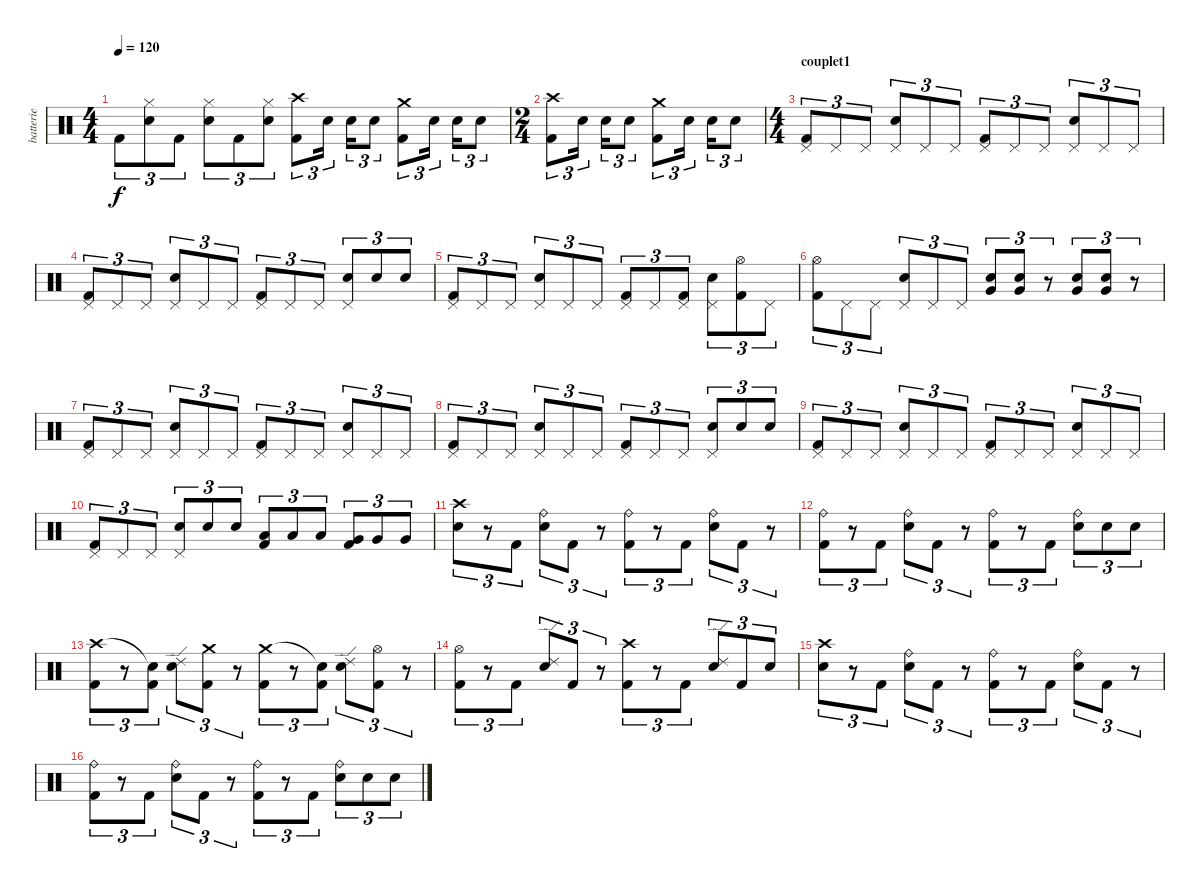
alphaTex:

\track ("batterie" "batterie") {instrument percussion}
\staff {score}
\articulation defaults
\ts (4 4)
\tempo 120
\clef neutral
\ks c "Kick (hit) 2".8{tu (3 2) dy f}
("Snare (hit) 2" "Hi-Hat (closed)").8{tu (3 2)} "Kick (hit) 2".8{tu (3 2)} ("Snare (hit) 2" "Hi-Hat (closed)").8{tu (3 2)} "Kick (hit) 2".8{tu (3 2)} ("Snare (hit) 2" "Hi-Hat (closed)").8{tu (3 2)} ("Crash high (hit)" "Kick (hit) 2").8{tu (3 2)} "Snare (hit) 2".16{tu (3 2)} "Snare (hit) 2".16{tu (3 2)} "Snare (hit) 2".8{tu (3 2)} ("Crash medium (hit)" "Kick (hit) 2").8{tu (3 2)} "Snare (hit) 2".16{tu (3 2)} "Snare (hit) 2".16{tu (3 2)} "Snare (hit) 2".8{tu (3 2)} |
\ts (2 4)
("Crash high (hit)" "Kick (hit) 2").8{tu (3 2)} "Snare (hit) 2".16{tu (3 2)} "Snare (hit) 2".16{tu (3 2)} "Snare (hit) 2".8{tu (3 2)} ("Crash medium (hit)" "Kick (hit) 2").8{tu (3 2)} "Snare (hit) 2".16{tu (3 2)} "Snare (hit) 2".16{tu (3 2)} "Snare (hit) 2".8{tu (3 2)} |
\ts (4 4)
\section ("" "couplet1")
("Kick (hit) 2" "Pedal Hi-Hat (hit)").8{tu (3 2)} "Pedal Hi-Hat (hit)".8{tu (3 2)} "Pedal Hi-Hat (hit)".8{tu (3 2)} ("Snare (hit) 2" "Pedal Hi-Hat (hit)").8{tu (3 2)} "Pedal Hi-Hat (hit)".8{tu (3 2)} "Pedal Hi-Hat (hit)".8{tu (3 2)} ("Kick (hit) 2" "Pedal Hi-Hat (hit)").8{tu (3 2)} "Pedal Hi-Hat (hit)".8{tu (3 2)} "Pedal Hi-Hat (hit)".8{tu (3 2)} ("Snare (hit) 2" "Pedal Hi-Hat (hit)").8{tu (3 2)} "Pedal Hi-Hat (hit)".8{tu (3 2)} "Pedal Hi-Hat (hit)".8{tu (3 2)} |
("Kick (hit) 2" "Pedal Hi-Hat (hit)").8{tu (3 2)} "Pedal Hi-Hat (hit)".8{tu (3 2)} "Pedal Hi-Hat (hit)".8{tu (3 2)} ("Snare (hit) 2" "Pedal Hi-Hat (hit)").8{tu (3 2)} "Pedal Hi-Hat (hit)".8{tu (3 2)} "Pedal Hi-Hat (hit)".8{tu (3 2)} ("Kick (hit) 2" "Pedal Hi-Hat (hit)").8{tu (3 2)} "Pedal Hi-Hat (hit)".8{tu (3 2)} "Pedal Hi-Hat (hit)".8{tu (3 2)} ("Snare (hit) 2" "Pedal Hi-Hat (hit)").8{tu (3 2)} "Snare (hit) 2".8{tu (3 2)} "Snare (hit) 2".8{tu (3 2)} |
("Kick (hit) 2" "Pedal Hi-Hat (hit)").8{tu (3 2)} "Pedal Hi-Hat (hit)".8{tu (3 2)} "Pedal Hi-Hat (hit)".8{tu (3 2)} ("Snare (hit) 2" "Pedal Hi-Hat (hit)").8{tu (3 2)} "Pedal Hi-Hat (hit)".8{tu (3 2)} "Pedal Hi-Hat (hit)".8{tu (3 2)} ("Kick (hit) 2" "Pedal Hi-Hat (hit)").8{tu (3 2)} "Pedal Hi-Hat (hit)".8{tu (3 2)} ("Kick (hit) 2" "Pedal Hi-Hat (hit)").8{tu (3 2)} ("Snare (hit) 2" "Pedal Hi-Hat (hit)").8{tu (3 2)} ("Kick (hit) 2" "Hi-Hat (open)").8{tu (3 2)} "Pedal Hi-Hat (hit)".8{tu (3 2)} |
("Kick (hit) 2" "Hi-Hat (open)").8{tu (3 2)} "Pedal Hi-Hat (hit)".8{tu (3 2)} "Pedal Hi-Hat (hit)".8{tu (3 2)} ("Snare (hit) 2" "Pedal Hi-Hat (hit)").8{tu (3 2)} "Pedal Hi-Hat (hit)".8{tu (3 2)} "Pedal Hi-Hat (hit)".8{tu (3 2)} ("Very Low Tom (hit)" "Snare (hit) 2").8{tu (3 2)} ("Very Low Tom (hit)" "Snare (hit) 2").8{tu (3 2)} r.8{tu (3 2)} ("Very Low Tom (hit)" "Snare (hit) 2").8{tu (3 2)} ("Very Low Tom (hit)" "Snare (hit) 2").8{tu (3 2)} r.8{tu (3 2)} |
("Kick (hit) 2" "Pedal Hi-Hat (hit)").8{tu (3 2)} "Pedal Hi-Hat (hit)".8{tu (3 2)} "Pedal Hi-Hat (hit)".8{tu (3 2)} ("Snare (hit) 2" "Pedal Hi-Hat (hit)").8{tu (3 2)} "Pedal Hi-Hat (hit)".8{tu (3 2)} "Pedal Hi-Hat (hit)".8{tu (3 2)} ("Kick (hit) 2" "Pedal Hi-Hat (hit)").8{tu (3 2)} "Pedal Hi-Hat (hit)".8{tu (3 2)} "Pedal Hi-Hat (hit)".8{tu (3 2)} ("Snare (hit) 2" "Pedal Hi-Hat (hit)").8{tu (3 2)} "Pedal Hi-Hat (hit)".8{tu (3 2)} "Pedal Hi-Hat (hit)".8{tu (3 2)} |
("Kick (hit) 2" "Pedal Hi-Hat (hit)").8{tu (3 2)} "Pedal Hi-Hat (hit)".8{tu (3 2)} "Pedal Hi-Hat (hit)".8{tu (3 2)} ("Snare (hit) 2" "Pedal Hi-Hat (hit)").8{tu (3 2)} "Pedal Hi-Hat (hit)".8{tu (3 2)} "Pedal Hi-Hat (hit)".8{tu (3 2)} ("Kick (hit) 2" "Pedal Hi-Hat (hit)").8{tu (3 2)} "Pedal Hi-Hat (hit)".8{tu (3 2)} "Pedal Hi-Hat (hit)".8{tu (3 2)} ("Snare (hit) 2" "Pedal Hi-Hat (hit)").8{tu (3 2)} "Snare (hit) 2".8{tu (3 2)} "Snare (hit) 2".8{tu (3 2)} |
("Kick (hit) 2" "Pedal Hi-Hat (hit)").8{tu (3 2)} "Pedal Hi-Hat (hit)".8{tu (3 2)} "Pedal Hi-Hat (hit)".8{tu (3 2)} ("Snare (hit) 2" "Pedal Hi-Hat (hit)").8{tu (3 2)} "Pedal Hi-Hat (hit)".8{tu (3 2)} "Pedal Hi-Hat (hit)".8{tu (3 2)} ("Kick (hit) 2" "Pedal Hi-Hat (hit)").8{tu (3 2)} "Pedal Hi-Hat (hit)".8{tu (3 2)} "Pedal Hi-Hat (hit)".8{tu (3 2)} ("Snare (hit) 2" "Pedal Hi-Hat (hit)").8{tu (3 2)} "Pedal Hi-Hat (hit)".8{tu (3 2)} "Pedal Hi-Hat (hit)".8{tu (3 2)} |
("Kick (hit) 2" "Pedal Hi-Hat (hit)").8{tu (3 2)} "Pedal Hi-Hat (hit)".8{tu (3 2)} "Pedal Hi-Hat (hit)".8{tu (3 2)} ("Snare (hit) 2" "Pedal Hi-Hat (hit)").8{tu (3 2)} "Snare (hit) 2".8{tu (3 2)} "Snare (hit) 2".8{tu (3 2)} ("Low Tom (hit)" "Kick (hit) 2").8{tu (3 2)} "Low Tom (hit)".8{tu (3 2)} "Low Tom (hit)".8{tu (3 2)} ("Very Low Tom (hit)" "Kick (hit) 2").8{tu (3 2)} "Very Low Tom (hit)".8{tu (3 2)} "Very Low Tom (hit)".8{tu (3 2)} |
("Crash high (hit)" "Snare (hit) 2").8{tu (3 2)} r.8{tu (3 2)} "Kick (hit) 2".8{tu (3 2)} ("Snare (hit) 2" "Ride (bell)").8{tu (3 2)} "Kick (hit) 2".8{tu (3 2)} r.8{tu (3 2)} ("Kick (hit) 2" "Ride (bell)").8{tu (3 2)} r.8{tu (3 2)} "Kick (hit) 2".8{tu (3 2)} ("Snare (hit) 2" "Ride (bell)").8{tu (3 2)} "Kick (hit) 2".8{tu (3 2)} r.8{tu (3 2)} |
("Kick (hit) 2" "Ride (bell)").8{tu (3 2)} r.8{tu (3 2)} "Kick (hit) 2".8{tu (3 2)} ("Snare (hit) 2" "Ride (bell)").8{tu (3 2)} "Kick (hit) 2".8{tu (3 2)} r.8{tu (3 2)} ("Kick (hit) 2" "Ride (bell)").8{tu (3 2)} r.8{tu (3 2)} "Kick (hit) 2".8{tu (3 2)} ("Snare (hit) 2" "Ride (bell)").8{tu (3 2)} "Snare (hit) 2".8{tu (3 2)} "Snare (hit) 2".8{tu (3 2)} |
("Crash high (hit)" "Kick (hit) 2").8{tu (3 2)} r.8{tu (3 2)} ("Snare (hit)"{t} "Kick (hit) 2").8{tu (3 2)} ("Snare (hit) 2" "Ride (edge) 2").8{tu (3 2)} ("Crash medium (hit)" "Kick (hit) 2").8{tu (3 2)} r.8{tu (3 2)} ("Crash medium (hit)" "Kick (hit) 2").8{tu (3 2)} r.8{tu (3 2)} ("Snare (hit)"{t} "Kick (hit) 2").8{tu (3 2)} ("Snare (hit) 2" "Ride (edge) 2").8{tu (3 2)} ("Kick (hit) 2" "Hi-Hat (open)").8{tu (3 2)} r.8{tu (3 2)} |
("Kick (hit) 2" "Hi-Hat (open)").8{tu (3 2)} r.8{tu (3 2)} "Kick (hit) 2".8{tu (3 2)} ("Snare (hit) 2" "Ride (edge) 2").8{tu (3 2)} "Kick (hit) 2".8{tu (3 2)} r.8{tu (3 2)} ("Kick (hit) 2" "Crash high (hit)").8{tu (3 2)} r.8{tu (3 2)} "Kick (hit) 2".8{tu (3 2)} ("Snare (hit) 2" "Ride (edge) 2").8{tu (3 2)} "Kick (hit) 2".8{tu (3 2)} "Snare (hit) 2".8{tu (3 2)} |
("Crash high (hit)" "Snare (hit) 2").8{tu (3 2)} r.8{tu (3 2)} "Kick (hit) 2".8{tu (3 2)} ("Snare (hit) 2" "Ride (bell)").8{tu (3 2)} "Kick (hit) 2".8{tu (3 2)} r.8{tu (3 2)} ("Kick (hit) 2" "Ride (bell)").8{tu (3 2)} r.8{tu (3 2)} "Kick (hit) 2".8{tu (3 2)} ("Snare (hit) 2" "Ride (bell)").8{tu (3 2)} "Kick (hit) 2".8{tu (3 2)} r.8{tu (3 2)} |
("Kick (hit) 2" "Ride (bell)").8{tu (3 2)} r.8{tu (3 2)} "Kick (hit) 2".8{tu (3 2)} ("Snare (hit) 2" "Ride (bell)").8{tu (3 2)} "Kick (hit) 2".8{tu (3 2)} r.8{tu (3 2)} ("Kick (hit) 2" "Ride (bell)").8{tu (3 2)} r.8{tu (3 2)} "Kick (hit) 2".8{tu (3 2)} ("Snare (hit) 2" "Ride (bell)").8{tu (3 2)} "Snare (hit) 2".8{tu (3 2)} "Snare (hit) 2".8{tu (3 2)}
